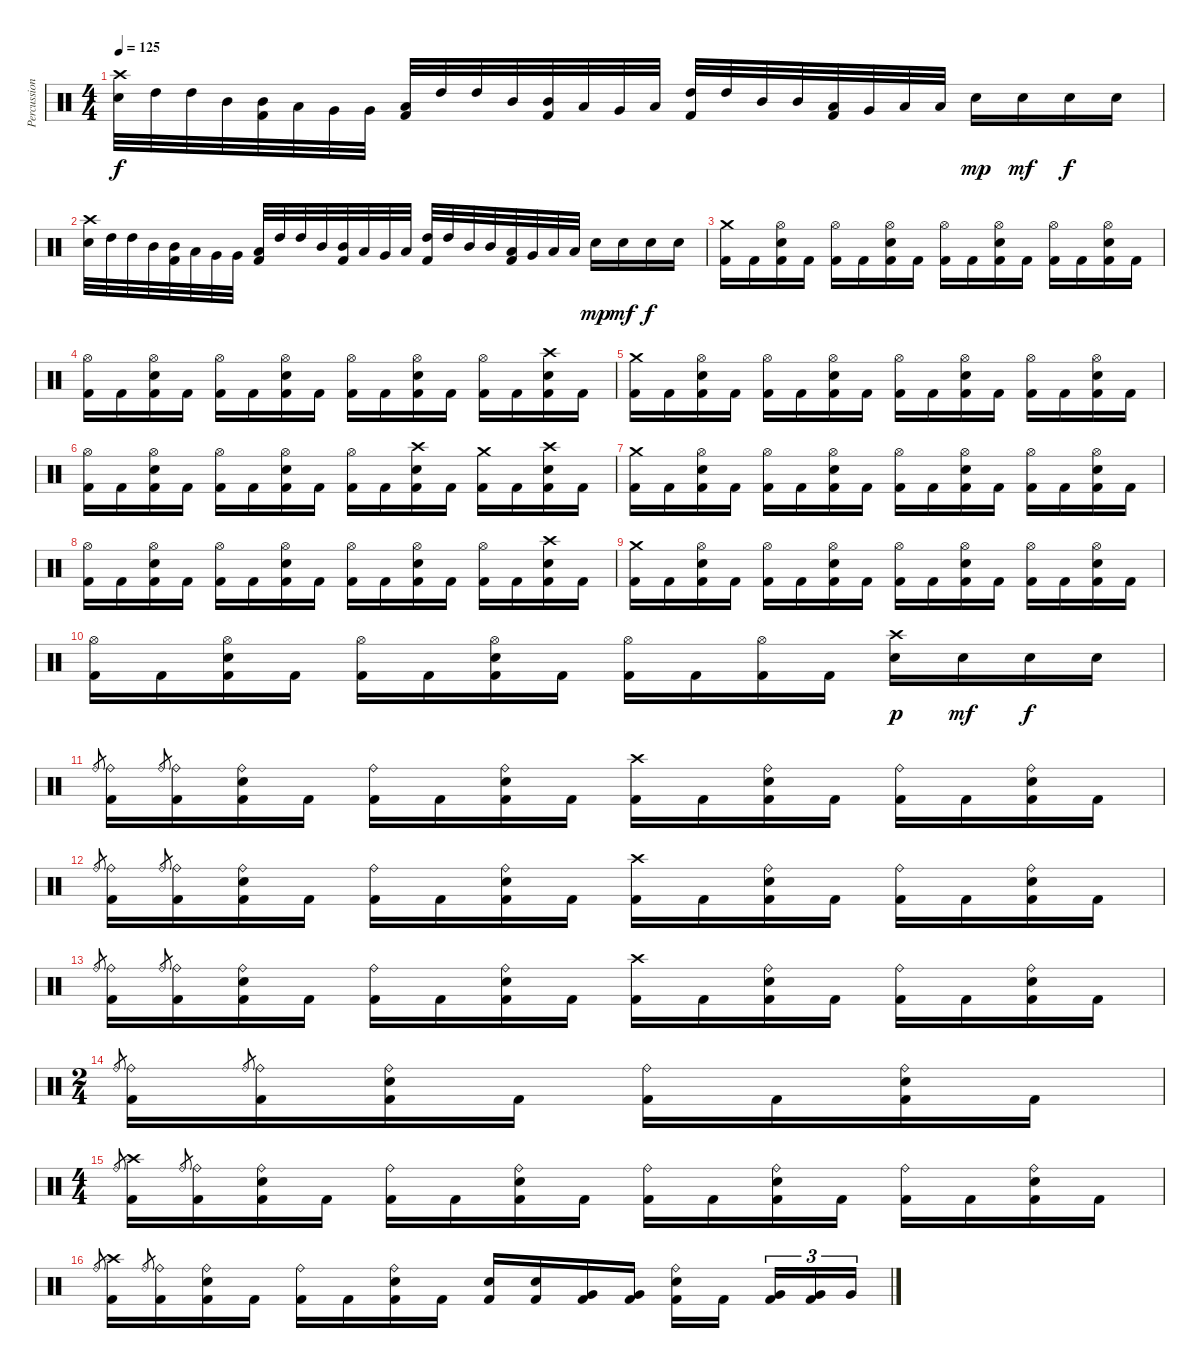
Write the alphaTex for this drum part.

\track ("Percussion" "Percussion") {instrument percussion}
\staff {score}
\articulation defaults
\ts (4 4)
\tempo 125
\clef neutral
\ks c
("Crash high (hit)" "Snare (hit) 2").32{dy f} "High Tom (hit)".32 "High Tom (hit)".32 "Mid Tom (hit)".32 ("Mid Tom (hit)" "Kick (hit) 2").32 "Low Tom (hit)".32 "Very Low Tom (hit)".32 "Very Low Tom (hit)".32 ("Low Floor Tom (hit)" "Kick (hit) 2").32 "High Tom (hit)".32 "High Tom (hit)".32 "Mid Tom (hit)".32 ("Mid Tom (hit)" "Kick (hit) 2").32 "Low Tom (hit)".32 "Very Low Tom (hit)".32 "Low Floor Tom (hit)".32 ("High Tom (hit)" "Kick (hit) 2").32 "High Tom (hit)".32 "Mid Tom (hit)".32 "Mid Tom (hit)".32 ("Low Tom (hit)" "Kick (hit) 2").32 "Very Low Tom (hit)".32 "Low Floor Tom (hit)".32 "Low Floor Tom (hit)".32 "Snare (hit) 2".16{dy mp} "Snare (hit) 2".16{dy mf} "Snare (hit) 2".16{dy f} "Snare (hit) 2".16 |
("Crash high (hit)" "Snare (hit) 2").32 "High Tom (hit)".32 "High Tom (hit)".32 "Mid Tom (hit)".32 ("Mid Tom (hit)" "Kick (hit) 2").32 "Low Tom (hit)".32 "Very Low Tom (hit)".32 "Very Low Tom (hit)".32 ("Low Floor Tom (hit)" "Kick (hit) 2").32 "High Tom (hit)".32 "High Tom (hit)".32 "Mid Tom (hit)".32 ("Mid Tom (hit)" "Kick (hit) 2").32 "Low Tom (hit)".32 "Very Low Tom (hit)".32 "Low Floor Tom (hit)".32 ("High Tom (hit)" "Kick (hit) 2").32 "High Tom (hit)".32 "Mid Tom (hit)".32 "Mid Tom (hit)".32 ("Low Tom (hit)" "Kick (hit) 2").32 "Very Low Tom (hit)".32 "Low Floor Tom (hit)".32 "Low Floor Tom (hit)".32 "Snare (hit) 2".16{dy mp} "Snare (hit) 2".16{dy mf} "Snare (hit) 2".16{dy f} "Snare (hit) 2".16 |
("Crash medium (hit)" "Kick (hit) 2").16 "Kick (hit) 2".16 ("Hi-Hat (open)" "Snare (hit) 2" "Kick (hit) 2").16 "Kick (hit) 2".16 ("Hi-Hat (open)" "Kick (hit) 2").16 "Kick (hit) 2".16 ("Hi-Hat (open)" "Snare (hit) 2" "Kick (hit) 2").16 "Kick (hit) 2".16 ("Hi-Hat (open)" "Kick (hit) 2").16 "Kick (hit) 2".16 ("Hi-Hat (open)" "Snare (hit) 2" "Kick (hit) 2").16 "Kick (hit) 2".16 ("Hi-Hat (open)" "Kick (hit) 2").16 "Kick (hit) 2".16 ("Hi-Hat (open)" "Snare (hit) 2" "Kick (hit) 2").16 "Kick (hit) 2".16 |
("Hi-Hat (open)" "Kick (hit) 2").16 "Kick (hit) 2".16 ("Hi-Hat (open)" "Snare (hit) 2" "Kick (hit) 2").16 "Kick (hit) 2".16 ("Hi-Hat (open)" "Kick (hit) 2").16 "Kick (hit) 2".16 ("Hi-Hat (open)" "Snare (hit) 2" "Kick (hit) 2").16 "Kick (hit) 2".16 ("Hi-Hat (open)" "Kick (hit) 2").16 "Kick (hit) 2".16 ("Hi-Hat (open)" "Snare (hit) 2" "Kick (hit) 2").16 "Kick (hit) 2".16 ("Hi-Hat (open)" "Kick (hit) 2").16 "Kick (hit) 2".16 ("Crash high (hit)" "Snare (hit) 2" "Kick (hit) 2").16 "Kick (hit) 2".16 |
("Crash medium (hit)" "Kick (hit) 2").16 "Kick (hit) 2".16 ("Hi-Hat (open)" "Snare (hit) 2" "Kick (hit) 2").16 "Kick (hit) 2".16 ("Hi-Hat (open)" "Kick (hit) 2").16 "Kick (hit) 2".16 ("Hi-Hat (open)" "Snare (hit) 2" "Kick (hit) 2").16 "Kick (hit) 2".16 ("Hi-Hat (open)" "Kick (hit) 2").16 "Kick (hit) 2".16 ("Hi-Hat (open)" "Snare (hit) 2" "Kick (hit) 2").16 "Kick (hit) 2".16 ("Hi-Hat (open)" "Kick (hit) 2").16 "Kick (hit) 2".16 ("Hi-Hat (open)" "Snare (hit) 2" "Kick (hit) 2").16 "Kick (hit) 2".16 |
("Hi-Hat (open)" "Kick (hit) 2").16 "Kick (hit) 2".16 ("Hi-Hat (open)" "Snare (hit) 2" "Kick (hit) 2").16 "Kick (hit) 2".16 ("Hi-Hat (open)" "Kick (hit) 2").16 "Kick (hit) 2".16 ("Hi-Hat (open)" "Snare (hit) 2" "Kick (hit) 2").16 "Kick (hit) 2".16 ("Hi-Hat (open)" "Kick (hit) 2").16 "Kick (hit) 2".16 ("Crash high (hit)" "Snare (hit) 2" "Kick (hit) 2").16 "Kick (hit) 2".16 ("Crash medium (hit)" "Kick (hit) 2").16 "Kick (hit) 2".16 ("Crash high (hit)" "Snare (hit) 2" "Kick (hit) 2").16 "Kick (hit) 2".16 |
("Crash medium (hit)" "Kick (hit) 2").16 "Kick (hit) 2".16 ("Hi-Hat (open)" "Snare (hit) 2" "Kick (hit) 2").16 "Kick (hit) 2".16 ("Hi-Hat (open)" "Kick (hit) 2").16 "Kick (hit) 2".16 ("Hi-Hat (open)" "Snare (hit) 2" "Kick (hit) 2").16 "Kick (hit) 2".16 ("Hi-Hat (open)" "Kick (hit) 2").16 "Kick (hit) 2".16 ("Hi-Hat (open)" "Snare (hit) 2" "Kick (hit) 2").16 "Kick (hit) 2".16 ("Hi-Hat (open)" "Kick (hit) 2").16 "Kick (hit) 2".16 ("Hi-Hat (open)" "Snare (hit) 2" "Kick (hit) 2").16 "Kick (hit) 2".16 |
("Hi-Hat (open)" "Kick (hit) 2").16 "Kick (hit) 2".16 ("Hi-Hat (open)" "Snare (hit) 2" "Kick (hit) 2").16 "Kick (hit) 2".16 ("Hi-Hat (open)" "Kick (hit) 2").16 "Kick (hit) 2".16 ("Hi-Hat (open)" "Snare (hit) 2" "Kick (hit) 2").16 "Kick (hit) 2".16 ("Hi-Hat (open)" "Kick (hit) 2").16 "Kick (hit) 2".16 ("Hi-Hat (open)" "Snare (hit) 2" "Kick (hit) 2").16 "Kick (hit) 2".16 ("Hi-Hat (open)" "Kick (hit) 2").16 "Kick (hit) 2".16 ("Crash high (hit)" "Snare (hit) 2" "Kick (hit) 2").16 "Kick (hit) 2".16 |
("Crash medium (hit)" "Kick (hit) 2").16 "Kick (hit) 2".16 ("Hi-Hat (open)" "Snare (hit) 2" "Kick (hit) 2").16 "Kick (hit) 2".16 ("Hi-Hat (open)" "Kick (hit) 2").16 "Kick (hit) 2".16 ("Hi-Hat (open)" "Snare (hit) 2" "Kick (hit) 2").16 "Kick (hit) 2".16 ("Hi-Hat (open)" "Kick (hit) 2").16 "Kick (hit) 2".16 ("Hi-Hat (open)" "Snare (hit) 2" "Kick (hit) 2").16 "Kick (hit) 2".16 ("Hi-Hat (open)" "Kick (hit) 2").16 "Kick (hit) 2".16 ("Hi-Hat (open)" "Snare (hit) 2" "Kick (hit) 2").16 "Kick (hit) 2".16 |
("Hi-Hat (open)" "Kick (hit) 2").16 "Kick (hit) 2".16 ("Hi-Hat (open)" "Snare (hit) 2" "Kick (hit) 2").16 "Kick (hit) 2".16 ("Hi-Hat (open)" "Kick (hit) 2").16 "Kick (hit) 2".16 ("Hi-Hat (open)" "Snare (hit) 2" "Kick (hit) 2").16 "Kick (hit) 2".16 ("Hi-Hat (open)" "Kick (hit) 2").16 "Kick (hit) 2".16 ("Hi-Hat (open)" "Kick (hit) 2").16 "Kick (hit) 2".16 ("Crash high (hit)" "Snare (hit) 2").16{dy p} "Snare (hit) 2".16{dy mf} "Snare (hit) 2".16{dy f} "Snare (hit) 2".16 |
"Ride (bell)".8{gr} ("Ride (bell)" "Kick (hit) 2").16 "Ride (bell)".8{gr} ("Ride (bell)" "Kick (hit) 2").16 ("Ride (bell)" "Snare (hit) 2" "Kick (hit) 2").16 "Kick (hit) 2".16 ("Ride (bell)" "Kick (hit) 2").16 "Kick (hit) 2".16 ("Ride (bell)" "Snare (hit) 2" "Kick (hit) 2").16 "Kick (hit) 2".16 ("Crash high (hit)" "Kick (hit) 2").16 "Kick (hit) 2".16 ("Ride (bell)" "Snare (hit) 2" "Kick (hit) 2").16 "Kick (hit) 2".16 ("Ride (bell)" "Kick (hit) 2").16 "Kick (hit) 2".16 ("Ride (bell)" "Snare (hit) 2" "Kick (hit) 2").16 "Kick (hit) 2".16 |
"Ride (bell)".8{gr} ("Ride (bell)" "Kick (hit) 2").16 "Ride (bell)".8{gr} ("Ride (bell)" "Kick (hit) 2").16 ("Ride (bell)" "Snare (hit) 2" "Kick (hit) 2").16 "Kick (hit) 2".16 ("Ride (bell)" "Kick (hit) 2").16 "Kick (hit) 2".16 ("Ride (bell)" "Snare (hit) 2" "Kick (hit) 2").16 "Kick (hit) 2".16 ("Crash high (hit)" "Kick (hit) 2").16 "Kick (hit) 2".16 ("Ride (bell)" "Snare (hit) 2" "Kick (hit) 2").16 "Kick (hit) 2".16 ("Ride (bell)" "Kick (hit) 2").16 "Kick (hit) 2".16 ("Ride (bell)" "Snare (hit) 2" "Kick (hit) 2").16 "Kick (hit) 2".16 |
"Ride (bell)".8{gr} ("Ride (bell)" "Kick (hit) 2").16 "Ride (bell)".8{gr} ("Ride (bell)" "Kick (hit) 2").16 ("Ride (bell)" "Snare (hit) 2" "Kick (hit) 2").16 "Kick (hit) 2".16 ("Ride (bell)" "Kick (hit) 2").16 "Kick (hit) 2".16 ("Ride (bell)" "Snare (hit) 2" "Kick (hit) 2").16 "Kick (hit) 2".16 ("Crash high (hit)" "Kick (hit) 2").16 "Kick (hit) 2".16 ("Ride (bell)" "Snare (hit) 2" "Kick (hit) 2").16 "Kick (hit) 2".16 ("Ride (bell)" "Kick (hit) 2").16 "Kick (hit) 2".16 ("Ride (bell)" "Snare (hit) 2" "Kick (hit) 2").16 "Kick (hit) 2".16 |
\ts (2 4)
"Ride (bell)".8{gr} ("Ride (bell)" "Kick (hit) 2").16 "Ride (bell)".8{gr} ("Ride (bell)" "Kick (hit) 2").16 ("Ride (bell)" "Snare (hit) 2" "Kick (hit) 2").16 "Kick (hit) 2".16 ("Ride (bell)" "Kick (hit) 2").16 "Kick (hit) 2".16 ("Ride (bell)" "Snare (hit) 2" "Kick (hit) 2").16 "Kick (hit) 2".16 |
\ts (4 4)
"Ride (bell)".8{gr} ("Crash high (hit)" "Kick (hit) 2").16 "Ride (bell)".8{gr} ("Ride (bell)" "Kick (hit) 2").16 ("Ride (bell)" "Snare (hit) 2" "Kick (hit) 2").16 "Kick (hit) 2".16 ("Ride (bell)" "Kick (hit) 2").16 "Kick (hit) 2".16 ("Ride (bell)" "Snare (hit) 2" "Kick (hit) 2").16 "Kick (hit) 2".16 ("Ride (bell)" "Kick (hit) 2").16 "Kick (hit) 2".16 ("Ride (bell)" "Snare (hit) 2" "Kick (hit) 2").16 "Kick (hit) 2".16 ("Ride (bell)" "Kick (hit) 2").16 "Kick (hit) 2".16 ("Ride (bell)" "Snare (hit) 2" "Kick (hit) 2").16 "Kick (hit) 2".16 |
"Ride (bell)".8{gr} ("Crash high (hit)" "Kick (hit) 2").16 "Ride (bell)".8{gr} ("Ride (bell)" "Kick (hit) 2").16 ("Ride (bell)" "Snare (hit) 2" "Kick (hit) 2").16 "Kick (hit) 2".16 ("Ride (bell)" "Kick (hit) 2").16 "Kick (hit) 2".16 ("Ride (bell)" "Snare (hit) 2" "Kick (hit) 2").16 "Kick (hit) 2".16 ("Snare (hit) 2" "Kick (hit) 2").16 ("Snare (hit) 2" "Kick (hit) 2").16 ("Very Low Tom (hit)" "Kick (hit) 2").16 ("Very Low Tom (hit)" "Kick (hit) 2").16 ("Ride (bell)" "Snare (hit) 2" "Kick (hit) 2").16 "Kick (hit) 2".16 ("Very Low Tom (hit)" "Kick (hit) 2").16{tu (3 2)} ("Very Low Tom (hit)" "Kick (hit) 2").16{tu (3 2)} "Very Low Tom (hit)".16{tu (3 2)}
